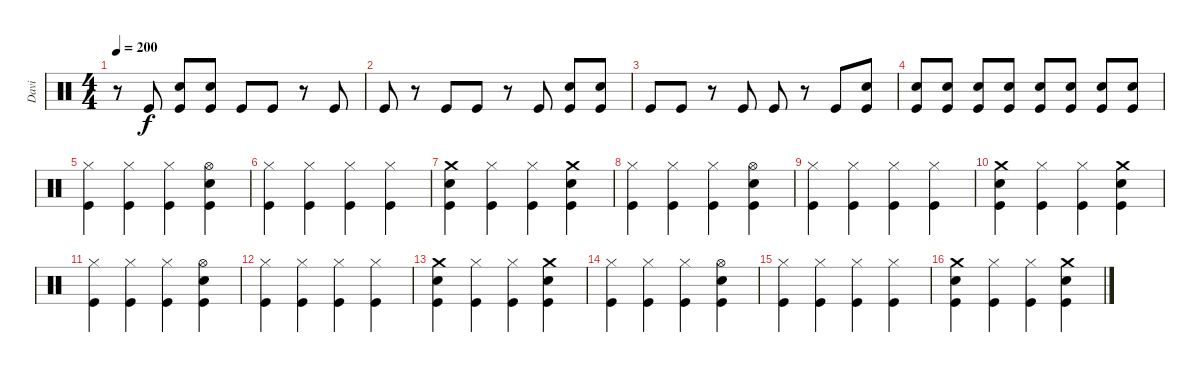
\track ("Davi" "Davi") {instrument percussion}
\staff {score}
\articulation defaults
\ts (4 4)
\tempo 200
\clef neutral
\ks c
r.8{dy f} "Kick (hit)".8 ("Electric Snare (hit)" "Kick (hit)").8 ("Electric Snare (hit)" "Kick (hit)").8 "Kick (hit)".8 "Kick (hit)".8 r.8 "Kick (hit)".8 |
"Kick (hit)".8 r.8 "Kick (hit)".8 "Kick (hit)".8 r.8 "Kick (hit)".8 ("Electric Snare (hit)" "Kick (hit)").8 ("Electric Snare (hit)" "Kick (hit)").8 |
"Kick (hit)".8 "Kick (hit)".8 r.8 "Kick (hit)".8 "Kick (hit)".8 r.8 "Kick (hit)".8 ("Electric Snare (hit)" "Kick (hit)").8 |
("Electric Snare (hit)" "Kick (hit)").8 ("Electric Snare (hit)" "Kick (hit)").8 ("Electric Snare (hit)" "Kick (hit)").8 ("Electric Snare (hit)" "Kick (hit)").8 ("Electric Snare (hit)" "Kick (hit)").8 ("Electric Snare (hit)" "Kick (hit)").8 ("Electric Snare (hit)" "Kick (hit)").8 ("Electric Snare (hit)" "Kick (hit)").8 |
("Hi-Hat (closed)" "Kick (hit)").4 ("Hi-Hat (closed)" "Kick (hit)").4 ("Hi-Hat (closed)" "Kick (hit)").4 ("Hi-Hat (open)" "Electric Snare (hit)" "Kick (hit)").4 |
("Hi-Hat (closed)" "Kick (hit)").4 ("Hi-Hat (closed)" "Kick (hit)").4 ("Hi-Hat (closed)" "Kick (hit)").4 ("Hi-Hat (closed)" "Kick (hit)").4 |
("Crash medium (hit)" "Electric Snare (hit)" "Kick (hit)").4 ("Hi-Hat (closed)" "Kick (hit)").4 ("Hi-Hat (closed)" "Kick (hit)").4 ("Crash medium (hit)" "Electric Snare (hit)" "Kick (hit)").4 |
("Hi-Hat (closed)" "Kick (hit)").4 ("Hi-Hat (closed)" "Kick (hit)").4 ("Hi-Hat (closed)" "Kick (hit)").4 ("Hi-Hat (open)" "Electric Snare (hit)" "Kick (hit)").4 |
("Hi-Hat (closed)" "Kick (hit)").4 ("Hi-Hat (closed)" "Kick (hit)").4 ("Hi-Hat (closed)" "Kick (hit)").4 ("Hi-Hat (closed)" "Kick (hit)").4 |
("Crash medium (hit)" "Electric Snare (hit)" "Kick (hit)").4 ("Hi-Hat (closed)" "Kick (hit)").4 ("Hi-Hat (closed)" "Kick (hit)").4 ("Crash medium (hit)" "Electric Snare (hit)" "Kick (hit)").4 |
("Hi-Hat (closed)" "Kick (hit)").4 ("Hi-Hat (closed)" "Kick (hit)").4 ("Hi-Hat (closed)" "Kick (hit)").4 ("Hi-Hat (open)" "Electric Snare (hit)" "Kick (hit)").4 |
("Hi-Hat (closed)" "Kick (hit)").4 ("Hi-Hat (closed)" "Kick (hit)").4 ("Hi-Hat (closed)" "Kick (hit)").4 ("Hi-Hat (closed)" "Kick (hit)").4 |
("Crash medium (hit)" "Electric Snare (hit)" "Kick (hit)").4 ("Hi-Hat (closed)" "Kick (hit)").4 ("Hi-Hat (closed)" "Kick (hit)").4 ("Crash medium (hit)" "Electric Snare (hit)" "Kick (hit)").4 |
("Hi-Hat (closed)" "Kick (hit)").4 ("Hi-Hat (closed)" "Kick (hit)").4 ("Hi-Hat (closed)" "Kick (hit)").4 ("Hi-Hat (open)" "Electric Snare (hit)" "Kick (hit)").4 |
("Hi-Hat (closed)" "Kick (hit)").4 ("Hi-Hat (closed)" "Kick (hit)").4 ("Hi-Hat (closed)" "Kick (hit)").4 ("Hi-Hat (closed)" "Kick (hit)").4 |
("Crash medium (hit)" "Electric Snare (hit)" "Kick (hit)").4 ("Hi-Hat (closed)" "Kick (hit)").4 ("Hi-Hat (closed)" "Kick (hit)").4 ("Crash medium (hit)" "Electric Snare (hit)" "Kick (hit)").4
